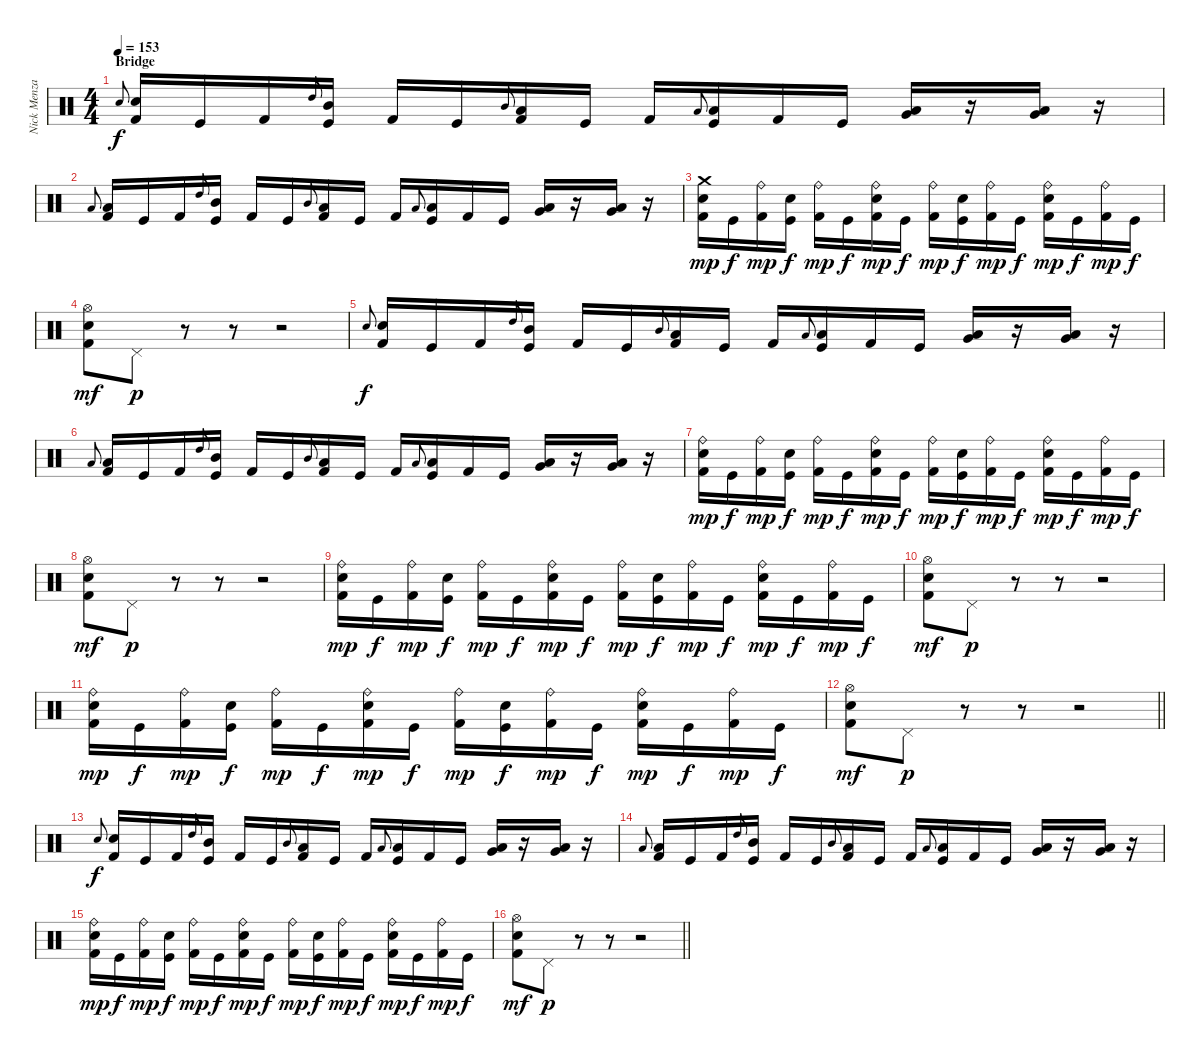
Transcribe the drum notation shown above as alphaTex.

\track ("Nick Menza" "Nick Menza") {instrument percussion}
\staff {score}
\articulation defaults
\ts (4 4)
\section ("" "Bridge")
\tempo 153
\clef neutral
\ks c "Electric Snare (hit)".8{gr onbeat dy f}
("Electric Snare (hit)" "Kick (hit) 2").16 "Kick (hit)".16 "Kick (hit) 2".16 "High Tom (hit)".8{gr onbeat} ("Mid Tom (hit)" "Kick (hit)").16 "Kick (hit) 2".16 "Kick (hit)".16 "Mid Tom (hit)".8{gr onbeat} ("Low Tom (hit)" "Kick (hit) 2").16 "Kick (hit)".16 "Kick (hit) 2".16 "Low Tom (hit)".8{gr onbeat} ("Low Tom (hit)" "Kick (hit)").16 "Kick (hit) 2".16 "Kick (hit)".16 ("Low Floor Tom (hit)" "Very Low Tom (hit)").16 r.16 ("Low Floor Tom (hit)" "Very Low Tom (hit)").16 r.16 |
"Low Tom (hit)".8{gr onbeat} ("Low Tom (hit)" "Kick (hit) 2").16 "Kick (hit)".16 "Kick (hit) 2".16 "High Tom (hit)".8{gr onbeat} ("Mid Tom (hit)" "Kick (hit)").16 "Kick (hit) 2".16 "Kick (hit)".16 "Mid Tom (hit)".8{gr onbeat} ("Low Tom (hit)" "Kick (hit) 2").16 "Kick (hit)".16 "Kick (hit) 2".16 "Low Tom (hit)".8{gr onbeat} ("Low Tom (hit)" "Kick (hit)").16 "Kick (hit) 2".16 "Kick (hit)".16 ("Low Floor Tom (hit)" "Very Low Tom (hit)").16 r.16 ("Low Floor Tom (hit)" "Very Low Tom (hit)").16 r.16 |
("Crash medium (hit)" "Electric Snare (hit)" "Kick (hit) 2").16{dy mp} "Kick (hit)".16{dy f} ("Ride (bell)" "Kick (hit) 2").16{dy mp} ("Electric Snare (hit)" "Kick (hit)").16{dy f} ("Ride (bell)" "Kick (hit) 2").16{dy mp} "Kick (hit)".16{dy f} ("Ride (bell)" "Electric Snare (hit)" "Kick (hit) 2").16{dy mp} "Kick (hit)".16{dy f} ("Ride (bell)" "Kick (hit) 2").16{dy mp} ("Electric Snare (hit)" "Kick (hit)").16{dy f} ("Ride (bell)" "Kick (hit) 2").16{dy mp} "Kick (hit)".16{dy f} ("Ride (bell)" "Electric Snare (hit)" "Kick (hit) 2").16{dy mp} "Kick (hit)".16{dy f} ("Ride (bell)" "Kick (hit) 2").16{dy mp} "Kick (hit)".16{dy f} |
("Hi-Hat (open)" "Electric Snare (hit)" "Kick (hit) 2").8{dy mf} "Pedal Hi-Hat (hit)".8{dy p} r.8 r.8 r.2 |
"Electric Snare (hit)".8{gr onbeat dy f} ("Electric Snare (hit)" "Kick (hit) 2").16 "Kick (hit)".16 "Kick (hit) 2".16 "High Tom (hit)".8{gr onbeat} ("Mid Tom (hit)" "Kick (hit)").16 "Kick (hit) 2".16 "Kick (hit)".16 "Mid Tom (hit)".8{gr onbeat} ("Low Tom (hit)" "Kick (hit) 2").16 "Kick (hit)".16 "Kick (hit) 2".16 "Low Tom (hit)".8{gr onbeat} ("Low Tom (hit)" "Kick (hit)").16 "Kick (hit) 2".16 "Kick (hit)".16 ("Low Floor Tom (hit)" "Very Low Tom (hit)").16 r.16 ("Low Floor Tom (hit)" "Very Low Tom (hit)").16 r.16 |
"Low Tom (hit)".8{gr onbeat} ("Low Tom (hit)" "Kick (hit) 2").16 "Kick (hit)".16 "Kick (hit) 2".16 "High Tom (hit)".8{gr onbeat} ("Mid Tom (hit)" "Kick (hit)").16 "Kick (hit) 2".16 "Kick (hit)".16 "Mid Tom (hit)".8{gr onbeat} ("Low Tom (hit)" "Kick (hit) 2").16 "Kick (hit)".16 "Kick (hit) 2".16 "Low Tom (hit)".8{gr onbeat} ("Low Tom (hit)" "Kick (hit)").16 "Kick (hit) 2".16 "Kick (hit)".16 ("Low Floor Tom (hit)" "Very Low Tom (hit)").16 r.16 ("Low Floor Tom (hit)" "Very Low Tom (hit)").16 r.16 |
("Ride (bell)" "Electric Snare (hit)" "Kick (hit) 2").16{dy mp} "Kick (hit)".16{dy f} ("Ride (bell)" "Kick (hit) 2").16{dy mp} ("Electric Snare (hit)" "Kick (hit)").16{dy f} ("Ride (bell)" "Kick (hit) 2").16{dy mp} "Kick (hit)".16{dy f} ("Ride (bell)" "Electric Snare (hit)" "Kick (hit) 2").16{dy mp} "Kick (hit)".16{dy f} ("Ride (bell)" "Kick (hit) 2").16{dy mp} ("Electric Snare (hit)" "Kick (hit)").16{dy f} ("Ride (bell)" "Kick (hit) 2").16{dy mp} "Kick (hit)".16{dy f} ("Ride (bell)" "Electric Snare (hit)" "Kick (hit) 2").16{dy mp} "Kick (hit)".16{dy f} ("Ride (bell)" "Kick (hit) 2").16{dy mp} "Kick (hit)".16{dy f} |
("Hi-Hat (open)" "Electric Snare (hit)" "Kick (hit) 2").8{dy mf} "Pedal Hi-Hat (hit)".8{dy p} r.8 r.8 r.2 |
("Ride (bell)" "Electric Snare (hit)" "Kick (hit) 2").16{dy mp} "Kick (hit)".16{dy f} ("Ride (bell)" "Kick (hit) 2").16{dy mp} ("Electric Snare (hit)" "Kick (hit)").16{dy f} ("Ride (bell)" "Kick (hit) 2").16{dy mp} "Kick (hit)".16{dy f} ("Ride (bell)" "Electric Snare (hit)" "Kick (hit) 2").16{dy mp} "Kick (hit)".16{dy f} ("Ride (bell)" "Kick (hit) 2").16{dy mp} ("Electric Snare (hit)" "Kick (hit)").16{dy f} ("Ride (bell)" "Kick (hit) 2").16{dy mp} "Kick (hit)".16{dy f} ("Ride (bell)" "Electric Snare (hit)" "Kick (hit) 2").16{dy mp} "Kick (hit)".16{dy f} ("Ride (bell)" "Kick (hit) 2").16{dy mp} "Kick (hit)".16{dy f} |
("Hi-Hat (open)" "Electric Snare (hit)" "Kick (hit) 2").8{dy mf} "Pedal Hi-Hat (hit)".8{dy p} r.8 r.8 r.2 |
("Ride (bell)" "Electric Snare (hit)" "Kick (hit) 2").16{dy mp} "Kick (hit)".16{dy f} ("Ride (bell)" "Kick (hit) 2").16{dy mp} ("Electric Snare (hit)" "Kick (hit)").16{dy f} ("Ride (bell)" "Kick (hit) 2").16{dy mp} "Kick (hit)".16{dy f} ("Ride (bell)" "Electric Snare (hit)" "Kick (hit) 2").16{dy mp} "Kick (hit)".16{dy f} ("Ride (bell)" "Kick (hit) 2").16{dy mp} ("Electric Snare (hit)" "Kick (hit)").16{dy f} ("Ride (bell)" "Kick (hit) 2").16{dy mp} "Kick (hit)".16{dy f} ("Ride (bell)" "Electric Snare (hit)" "Kick (hit) 2").16{dy mp} "Kick (hit)".16{dy f} ("Ride (bell)" "Kick (hit) 2").16{dy mp} "Kick (hit)".16{dy f} |
\barLineRight lightlight
("Hi-Hat (open)" "Electric Snare (hit)" "Kick (hit) 2").8{dy mf} "Pedal Hi-Hat (hit)".8{dy p} r.8 r.8 r.2 |
\section ("" "")
"Electric Snare (hit)".8{gr onbeat dy f} ("Electric Snare (hit)" "Kick (hit) 2").16 "Kick (hit)".16 "Kick (hit) 2".16 "High Tom (hit)".8{gr onbeat} ("Mid Tom (hit)" "Kick (hit)").16 "Kick (hit) 2".16 "Kick (hit)".16 "Mid Tom (hit)".8{gr onbeat} ("Low Tom (hit)" "Kick (hit) 2").16 "Kick (hit)".16 "Kick (hit) 2".16 "Low Tom (hit)".8{gr onbeat} ("Low Tom (hit)" "Kick (hit)").16 "Kick (hit) 2".16 "Kick (hit)".16 ("Low Floor Tom (hit)" "Very Low Tom (hit)").16 r.16 ("Low Floor Tom (hit)" "Very Low Tom (hit)").16 r.16 |
"Low Tom (hit)".8{gr onbeat} ("Low Tom (hit)" "Kick (hit) 2").16 "Kick (hit)".16 "Kick (hit) 2".16 "High Tom (hit)".8{gr onbeat} ("Mid Tom (hit)" "Kick (hit)").16 "Kick (hit) 2".16 "Kick (hit)".16 "Mid Tom (hit)".8{gr onbeat} ("Low Tom (hit)" "Kick (hit) 2").16 "Kick (hit)".16 "Kick (hit) 2".16 "Low Tom (hit)".8{gr onbeat} ("Low Tom (hit)" "Kick (hit)").16 "Kick (hit) 2".16 "Kick (hit)".16 ("Low Floor Tom (hit)" "Very Low Tom (hit)").16 r.16 ("Low Floor Tom (hit)" "Very Low Tom (hit)").16 r.16 |
("Ride (bell)" "Electric Snare (hit)" "Kick (hit) 2").16{dy mp} "Kick (hit)".16{dy f} ("Ride (bell)" "Kick (hit) 2").16{dy mp} ("Electric Snare (hit)" "Kick (hit)").16{dy f} ("Ride (bell)" "Kick (hit) 2").16{dy mp} "Kick (hit)".16{dy f} ("Ride (bell)" "Electric Snare (hit)" "Kick (hit) 2").16{dy mp} "Kick (hit)".16{dy f} ("Ride (bell)" "Kick (hit) 2").16{dy mp} ("Electric Snare (hit)" "Kick (hit)").16{dy f} ("Ride (bell)" "Kick (hit) 2").16{dy mp} "Kick (hit)".16{dy f} ("Ride (bell)" "Electric Snare (hit)" "Kick (hit) 2").16{dy mp} "Kick (hit)".16{dy f} ("Ride (bell)" "Kick (hit) 2").16{dy mp} "Kick (hit)".16{dy f} |
\barLineRight lightlight
("Hi-Hat (open)" "Electric Snare (hit)" "Kick (hit) 2").8{dy mf} "Pedal Hi-Hat (hit)".8{dy p} r.8 r.8 r.2
